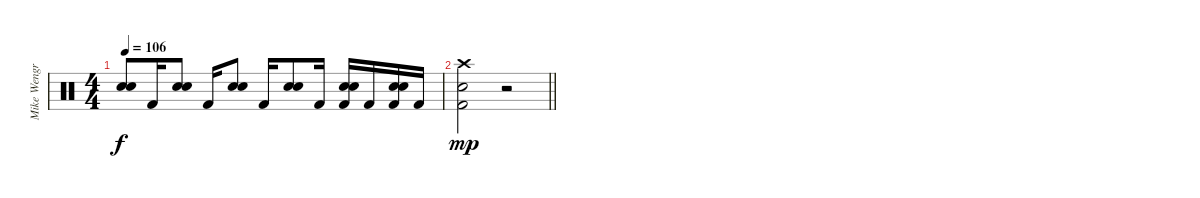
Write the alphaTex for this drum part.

\track ("Mike Wengren" "Mike Wengr") {instrument percussion}
\staff {score}
\articulation defaults
\ts (4 4)
\tempo 106
\clef neutral
\ks c
("Snare (hit) 2" "Snare (hit) 2").8{dy f} "Kick (hit) 2".16 ("Snare (hit) 2" "Snare (hit) 2").8 "Kick (hit) 2".16 ("Snare (hit) 2" "Snare (hit) 2").8 "Kick (hit) 2".16 ("Snare (hit) 2" "Snare (hit) 2").8 "Kick (hit) 2".16 ("Snare (hit) 2" "Snare (hit) 2" "Kick (hit) 2").16 "Kick (hit) 2".16 ("Snare (hit) 2" "Snare (hit) 2" "Kick (hit) 2").16 "Kick (hit) 2".16 |
\barLineRight lightlight
("Snare (hit) 2" "Crash high (hit)" "Kick (hit) 2").2{dy mp} r.2
